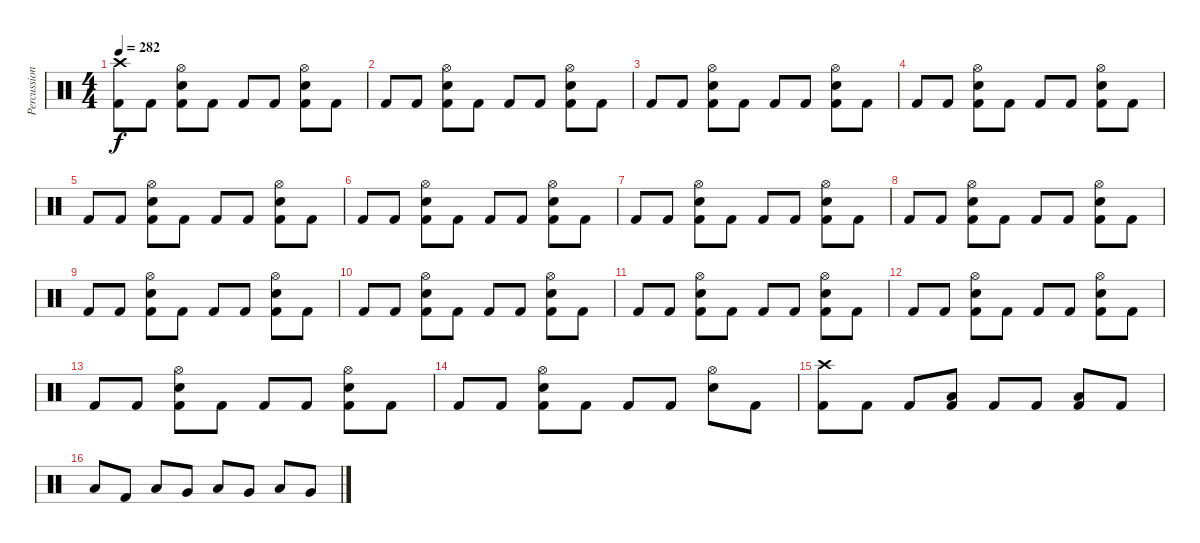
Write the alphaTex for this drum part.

\track ("Percussion" "Percussion") {instrument percussion}
\staff {score}
\articulation defaults
\ts (4 4)
\tempo 282
\clef neutral
\ks c
("Kick (hit) 2" "Crash high (hit)").8{dy f} "Kick (hit) 2".8 ("Kick (hit) 2" "Snare (hit) 2" "Hi-Hat (open)").8 "Kick (hit) 2".8 "Kick (hit) 2".8 "Kick (hit) 2".8 ("Kick (hit) 2" "Snare (hit) 2" "Hi-Hat (open)").8 "Kick (hit) 2".8 |
"Kick (hit) 2".8 "Kick (hit) 2".8 ("Kick (hit) 2" "Snare (hit) 2" "Hi-Hat (open)").8 "Kick (hit) 2".8 "Kick (hit) 2".8 "Kick (hit) 2".8 ("Kick (hit) 2" "Snare (hit) 2" "Hi-Hat (open)").8 "Kick (hit) 2".8 |
"Kick (hit) 2".8 "Kick (hit) 2".8 ("Kick (hit) 2" "Snare (hit) 2" "Hi-Hat (open)").8 "Kick (hit) 2".8 "Kick (hit) 2".8 "Kick (hit) 2".8 ("Kick (hit) 2" "Snare (hit) 2" "Hi-Hat (open)").8 "Kick (hit) 2".8 |
"Kick (hit) 2".8 "Kick (hit) 2".8 ("Kick (hit) 2" "Snare (hit) 2" "Hi-Hat (open)").8 "Kick (hit) 2".8 "Kick (hit) 2".8 "Kick (hit) 2".8 ("Kick (hit) 2" "Snare (hit) 2" "Hi-Hat (open)").8 "Kick (hit) 2".8 |
"Kick (hit) 2".8 "Kick (hit) 2".8 ("Kick (hit) 2" "Snare (hit) 2" "Hi-Hat (open)").8 "Kick (hit) 2".8 "Kick (hit) 2".8 "Kick (hit) 2".8 ("Kick (hit) 2" "Snare (hit) 2" "Hi-Hat (open)").8 "Kick (hit) 2".8 |
"Kick (hit) 2".8 "Kick (hit) 2".8 ("Kick (hit) 2" "Snare (hit) 2" "Hi-Hat (open)").8 "Kick (hit) 2".8 "Kick (hit) 2".8 "Kick (hit) 2".8 ("Kick (hit) 2" "Snare (hit) 2" "Hi-Hat (open)").8 "Kick (hit) 2".8 |
"Kick (hit) 2".8 "Kick (hit) 2".8 ("Kick (hit) 2" "Snare (hit) 2" "Hi-Hat (open)").8 "Kick (hit) 2".8 "Kick (hit) 2".8 "Kick (hit) 2".8 ("Kick (hit) 2" "Snare (hit) 2" "Hi-Hat (open)").8 "Kick (hit) 2".8 |
"Kick (hit) 2".8 "Kick (hit) 2".8 ("Kick (hit) 2" "Snare (hit) 2" "Hi-Hat (open)").8 "Kick (hit) 2".8 "Kick (hit) 2".8 "Kick (hit) 2".8 ("Kick (hit) 2" "Snare (hit) 2" "Hi-Hat (open)").8 "Kick (hit) 2".8 |
"Kick (hit) 2".8 "Kick (hit) 2".8 ("Kick (hit) 2" "Snare (hit) 2" "Hi-Hat (open)").8 "Kick (hit) 2".8 "Kick (hit) 2".8 "Kick (hit) 2".8 ("Kick (hit) 2" "Snare (hit) 2" "Hi-Hat (open)").8 "Kick (hit) 2".8 |
"Kick (hit) 2".8 "Kick (hit) 2".8 ("Kick (hit) 2" "Snare (hit) 2" "Hi-Hat (open)").8 "Kick (hit) 2".8 "Kick (hit) 2".8 "Kick (hit) 2".8 ("Kick (hit) 2" "Snare (hit) 2" "Hi-Hat (open)").8 "Kick (hit) 2".8 |
"Kick (hit) 2".8 "Kick (hit) 2".8 ("Kick (hit) 2" "Snare (hit) 2" "Hi-Hat (open)").8 "Kick (hit) 2".8 "Kick (hit) 2".8 "Kick (hit) 2".8 ("Kick (hit) 2" "Snare (hit) 2" "Hi-Hat (open)").8 "Kick (hit) 2".8 |
"Kick (hit) 2".8 "Kick (hit) 2".8 ("Kick (hit) 2" "Snare (hit) 2" "Hi-Hat (open)").8 "Kick (hit) 2".8 "Kick (hit) 2".8 "Kick (hit) 2".8 ("Kick (hit) 2" "Snare (hit) 2" "Hi-Hat (open)").8 "Kick (hit) 2".8 |
"Kick (hit) 2".8 "Kick (hit) 2".8 ("Kick (hit) 2" "Snare (hit) 2" "Hi-Hat (open)").8 "Kick (hit) 2".8 "Kick (hit) 2".8 "Kick (hit) 2".8 ("Kick (hit) 2" "Snare (hit) 2" "Hi-Hat (open)").8 "Kick (hit) 2".8 |
"Kick (hit) 2".8 "Kick (hit) 2".8 ("Kick (hit) 2" "Snare (hit) 2" "Hi-Hat (open)").8 "Kick (hit) 2".8 "Kick (hit) 2".8 "Kick (hit) 2".8 ("Snare (hit) 2" "Hi-Hat (open)").8 "Kick (hit) 2".8 |
("Kick (hit) 2" "Crash high (hit)").8 "Kick (hit) 2".8 "Kick (hit) 2".8 ("Kick (hit) 2" "Low Floor Tom (hit)").8 "Kick (hit) 2".8 "Kick (hit) 2".8 ("Kick (hit) 2" "Low Floor Tom (hit)").8 "Kick (hit) 2".8 |
"Low Floor Tom (hit)".8 "Kick (hit) 2".8 "Low Floor Tom (hit)".8 "Very Low Tom (hit)".8 "Low Floor Tom (hit)".8 "Very Low Tom (hit)".8 "Low Tom (hit)".8 "Very Low Tom (hit)".8
